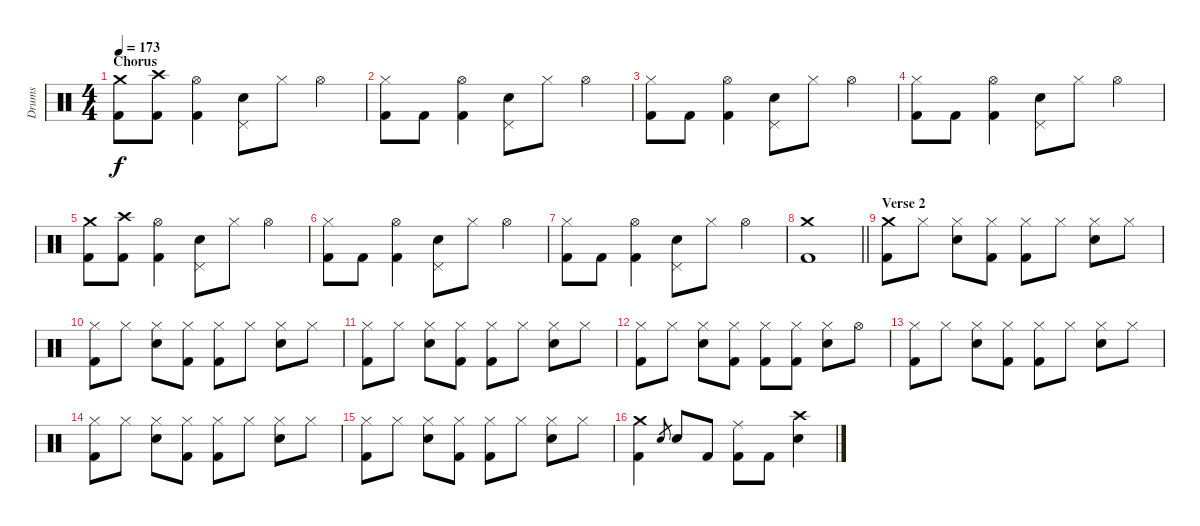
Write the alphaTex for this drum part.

\track ("Drums" "Drums") {instrument percussion}
\staff {score}
\articulation defaults
\ts (4 4)
\section ("" "Chorus")
\tempo 173
\clef neutral
\ks c
("Crash medium (hit)" "Kick (hit) 2").8{dy f} ("Crash high (hit)" "Kick (hit) 2").8 ("Hi-Hat (open)" "Kick (hit) 2").4 ("Pedal Hi-Hat (hit)" "Electric Snare (hit)").8 "Hi-Hat (closed)".8 "Hi-Hat (open)".4 |
("Hi-Hat (closed)" "Kick (hit) 2").8 "Kick (hit) 2".8 ("Hi-Hat (open)" "Kick (hit) 2").4 ("Pedal Hi-Hat (hit)" "Electric Snare (hit)").8 "Hi-Hat (closed)".8 "Hi-Hat (open)".4 |
("Hi-Hat (closed)" "Kick (hit) 2").8 "Kick (hit) 2".8 ("Hi-Hat (open)" "Kick (hit) 2").4 ("Pedal Hi-Hat (hit)" "Electric Snare (hit)").8 "Hi-Hat (closed)".8 "Hi-Hat (open)".4 |
("Hi-Hat (closed)" "Kick (hit) 2").8 "Kick (hit) 2".8 ("Hi-Hat (open)" "Kick (hit) 2").4 ("Pedal Hi-Hat (hit)" "Electric Snare (hit)").8 "Hi-Hat (closed)".8 "Hi-Hat (open)".4 |
("Crash medium (hit)" "Kick (hit) 2").8 ("Crash high (hit)" "Kick (hit) 2").8 ("Hi-Hat (open)" "Kick (hit) 2").4 ("Pedal Hi-Hat (hit)" "Electric Snare (hit)").8 "Hi-Hat (closed)".8 "Hi-Hat (open)".4 |
("Hi-Hat (closed)" "Kick (hit) 2").8 "Kick (hit) 2".8 ("Hi-Hat (open)" "Kick (hit) 2").4 ("Pedal Hi-Hat (hit)" "Electric Snare (hit)").8 "Hi-Hat (closed)".8 "Hi-Hat (open)".4 |
("Hi-Hat (closed)" "Kick (hit) 2").8 "Kick (hit) 2".8 ("Hi-Hat (open)" "Kick (hit) 2").4 ("Pedal Hi-Hat (hit)" "Electric Snare (hit)").8 "Hi-Hat (closed)".8 "Hi-Hat (open)".4 |
\barLineRight lightlight
("Crash medium (hit)" "Kick (hit) 2").1 |
\section ("" "Verse 2")
("Crash medium (hit)" "Kick (hit) 2").8 "Hi-Hat (closed)".8 ("Hi-Hat (closed)" "Electric Snare (hit)").8 ("Hi-Hat (closed)" "Kick (hit) 2").8 ("Hi-Hat (closed)" "Kick (hit) 2").8 "Hi-Hat (closed)".8 ("Hi-Hat (closed)" "Electric Snare (hit)").8 "Hi-Hat (closed)".8 |
("Hi-Hat (closed)" "Kick (hit) 2").8 "Hi-Hat (closed)".8 ("Hi-Hat (closed)" "Electric Snare (hit)").8 ("Hi-Hat (closed)" "Kick (hit) 2").8 ("Hi-Hat (closed)" "Kick (hit) 2").8 "Hi-Hat (closed)".8 ("Hi-Hat (closed)" "Electric Snare (hit)").8 "Hi-Hat (closed)".8 |
("Hi-Hat (closed)" "Kick (hit) 2").8 "Hi-Hat (closed)".8 ("Hi-Hat (closed)" "Electric Snare (hit)").8 ("Hi-Hat (closed)" "Kick (hit) 2").8 ("Hi-Hat (closed)" "Kick (hit) 2").8 "Hi-Hat (closed)".8 ("Hi-Hat (closed)" "Electric Snare (hit)").8 "Hi-Hat (closed)".8 |
("Hi-Hat (closed)" "Kick (hit) 2").8 "Hi-Hat (closed)".8 ("Hi-Hat (closed)" "Electric Snare (hit)").8 ("Hi-Hat (closed)" "Kick (hit) 2").8 ("Hi-Hat (closed)" "Kick (hit) 2").8 ("Hi-Hat (closed)" "Kick (hit) 2").8 ("Hi-Hat (closed)" "Electric Snare (hit)").8 "Hi-Hat (open)".8 |
("Hi-Hat (closed)" "Kick (hit) 2").8 "Hi-Hat (closed)".8 ("Hi-Hat (closed)" "Electric Snare (hit)").8 ("Hi-Hat (closed)" "Kick (hit) 2").8 ("Hi-Hat (closed)" "Kick (hit) 2").8 "Hi-Hat (closed)".8 ("Hi-Hat (closed)" "Electric Snare (hit)").8 "Hi-Hat (closed)".8 |
("Hi-Hat (closed)" "Kick (hit) 2").8 "Hi-Hat (closed)".8 ("Hi-Hat (closed)" "Electric Snare (hit)").8 ("Hi-Hat (closed)" "Kick (hit) 2").8 ("Hi-Hat (closed)" "Kick (hit) 2").8 "Hi-Hat (closed)".8 ("Hi-Hat (closed)" "Electric Snare (hit)").8 "Hi-Hat (closed)".8 |
("Hi-Hat (closed)" "Kick (hit) 2").8 "Hi-Hat (closed)".8 ("Hi-Hat (closed)" "Electric Snare (hit)").8 ("Hi-Hat (closed)" "Kick (hit) 2").8 ("Hi-Hat (closed)" "Kick (hit) 2").8 "Hi-Hat (closed)".8 ("Hi-Hat (closed)" "Electric Snare (hit)").8 "Hi-Hat (closed)".8 |
("Crash medium (hit)" "Kick (hit) 2").4 "Electric Snare (hit)".8{gr} "Electric Snare (hit)".8 "Kick (hit) 2".8 ("Ride (middle)" "Kick (hit) 2").8 "Kick (hit) 2".8 ("Crash high (hit)" "Electric Snare (hit)").4
